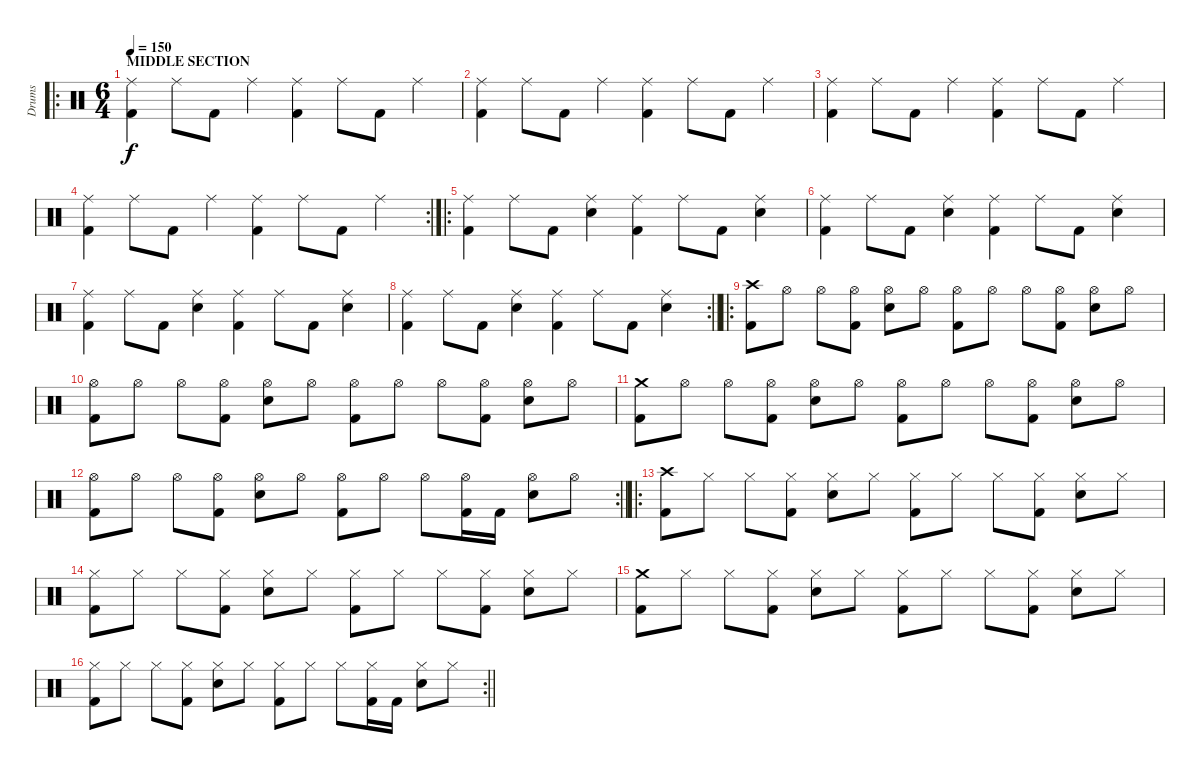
\track ("Drums" "Drums") {instrument percussion}
\staff {score}
\articulation defaults
\ro
\ts (6 4)
\section ("" "MIDDLE SECTION")
\tempo 150
\clef neutral
\ks c
("Kick (hit) 2" "Ride (middle)").4{dy f} "Ride (middle)".8 "Kick (hit) 2".8 "Ride (middle)".4 ("Kick (hit) 2" "Ride (middle)").4 "Ride (middle)".8 "Kick (hit) 2".8 "Ride (middle)".4 |
("Kick (hit) 2" "Ride (middle)").4 "Ride (middle)".8 "Kick (hit) 2".8 "Ride (middle)".4 ("Kick (hit) 2" "Ride (middle)").4 "Ride (middle)".8 "Kick (hit) 2".8 "Ride (middle)".4 |
("Kick (hit) 2" "Ride (middle)").4 "Ride (middle)".8 "Kick (hit) 2".8 "Ride (middle)".4 ("Kick (hit) 2" "Ride (middle)").4 "Ride (middle)".8 "Kick (hit) 2".8 "Ride (middle)".4 |
\rc 2
("Kick (hit) 2" "Ride (middle)").4 "Ride (middle)".8 "Kick (hit) 2".8 "Ride (middle)".4 ("Kick (hit) 2" "Ride (middle)").4 "Ride (middle)".8 "Kick (hit) 2".8 "Ride (middle)".4 |
\ro
("Kick (hit) 2" "Ride (middle)").4 "Ride (middle)".8 "Kick (hit) 2".8 ("Snare (hit) 2" "Ride (middle)").4 ("Kick (hit) 2" "Ride (middle)").4 "Ride (middle)".8 "Kick (hit) 2".8 ("Snare (hit) 2" "Ride (middle)").4 |
("Kick (hit) 2" "Ride (middle)").4 "Ride (middle)".8 "Kick (hit) 2".8 ("Snare (hit) 2" "Ride (middle)").4 ("Kick (hit) 2" "Ride (middle)").4 "Ride (middle)".8 "Kick (hit) 2".8 ("Snare (hit) 2" "Ride (middle)").4 |
("Kick (hit) 2" "Ride (middle)").4 "Ride (middle)".8 "Kick (hit) 2".8 ("Snare (hit) 2" "Ride (middle)").4 ("Kick (hit) 2" "Ride (middle)").4 "Ride (middle)".8 "Kick (hit) 2".8 ("Snare (hit) 2" "Ride (middle)").4 |
\rc 2
\barLineRight lightlight
("Kick (hit) 2" "Ride (middle)").4 "Ride (middle)".8 "Kick (hit) 2".8 ("Snare (hit) 2" "Ride (middle)").4 ("Kick (hit) 2" "Ride (middle)").4 "Ride (middle)".8 "Kick (hit) 2".8 ("Snare (hit) 2" "Ride (middle)").4 |
\ro
("Kick (hit) 2" "Crash high (hit)").8 "Hi-Hat (open)".8 "Hi-Hat (open)".8 ("Kick (hit) 2" "Hi-Hat (open)").8 ("Snare (hit) 2" "Hi-Hat (open)").8 "Hi-Hat (open)".8 ("Kick (hit) 2" "Hi-Hat (open)").8 "Hi-Hat (open)".8 "Hi-Hat (open)".8 ("Kick (hit) 2" "Hi-Hat (open)").8 ("Snare (hit) 2" "Hi-Hat (open)").8 "Hi-Hat (open)".8 |
("Kick (hit) 2" "Hi-Hat (open)").8 "Hi-Hat (open)".8 "Hi-Hat (open)".8 ("Kick (hit) 2" "Hi-Hat (open)").8 ("Snare (hit) 2" "Hi-Hat (open)").8 "Hi-Hat (open)".8 ("Kick (hit) 2" "Hi-Hat (open)").8 "Hi-Hat (open)".8 "Hi-Hat (open)".8 ("Kick (hit) 2" "Hi-Hat (open)").8 ("Snare (hit) 2" "Hi-Hat (open)").8 "Hi-Hat (open)".8 |
("Kick (hit) 2" "Crash medium (hit)").8 "Hi-Hat (open)".8 "Hi-Hat (open)".8 ("Kick (hit) 2" "Hi-Hat (open)").8 ("Snare (hit) 2" "Hi-Hat (open)").8 "Hi-Hat (open)".8 ("Kick (hit) 2" "Hi-Hat (open)").8 "Hi-Hat (open)".8 "Hi-Hat (open)".8 ("Kick (hit) 2" "Hi-Hat (open)").8 ("Snare (hit) 2" "Hi-Hat (open)").8 "Hi-Hat (open)".8 |
\rc 2
\barLineRight lightlight
("Kick (hit) 2" "Hi-Hat (open)").8 "Hi-Hat (open)".8 "Hi-Hat (open)".8 ("Kick (hit) 2" "Hi-Hat (open)").8 ("Snare (hit) 2" "Hi-Hat (open)").8 "Hi-Hat (open)".8 ("Kick (hit) 2" "Hi-Hat (open)").8 "Hi-Hat (open)".8 "Hi-Hat (open)".8 ("Kick (hit) 2" "Hi-Hat (open)").16 "Kick (hit) 2".16 ("Snare (hit) 2" "Hi-Hat (open)").8 "Hi-Hat (open)".8 |
\ro
("Kick (hit) 2" "Crash high (hit)").8 "Hi-Hat (closed)".8 "Hi-Hat (closed)".8 ("Kick (hit) 2" "Hi-Hat (closed)").8 ("Snare (hit) 2" "Hi-Hat (closed)").8 "Hi-Hat (closed)".8 ("Kick (hit) 2" "Hi-Hat (closed)").8 "Hi-Hat (closed)".8 "Hi-Hat (closed)".8 ("Kick (hit) 2" "Hi-Hat (closed)").8 ("Snare (hit) 2" "Hi-Hat (closed)").8 "Hi-Hat (closed)".8 |
("Kick (hit) 2" "Hi-Hat (closed)").8 "Hi-Hat (closed)".8 "Hi-Hat (closed)".8 ("Kick (hit) 2" "Hi-Hat (closed)").8 ("Snare (hit) 2" "Hi-Hat (closed)").8 "Hi-Hat (closed)".8 ("Kick (hit) 2" "Hi-Hat (closed)").8 "Hi-Hat (closed)".8 "Hi-Hat (closed)".8 ("Kick (hit) 2" "Hi-Hat (closed)").8 ("Snare (hit) 2" "Hi-Hat (closed)").8 "Hi-Hat (closed)".8 |
("Kick (hit) 2" "Crash medium (hit)").8 "Hi-Hat (closed)".8 "Hi-Hat (closed)".8 ("Kick (hit) 2" "Hi-Hat (closed)").8 ("Snare (hit) 2" "Hi-Hat (closed)").8 "Hi-Hat (closed)".8 ("Kick (hit) 2" "Hi-Hat (closed)").8 "Hi-Hat (closed)".8 "Hi-Hat (closed)".8 ("Kick (hit) 2" "Hi-Hat (closed)").8 ("Snare (hit) 2" "Hi-Hat (closed)").8 "Hi-Hat (closed)".8 |
\rc 2
\barLineRight lightlight
("Kick (hit) 2" "Hi-Hat (closed)").8 "Hi-Hat (closed)".8 "Hi-Hat (closed)".8 ("Kick (hit) 2" "Hi-Hat (closed)").8 ("Snare (hit) 2" "Hi-Hat (closed)").8 "Hi-Hat (closed)".8 ("Kick (hit) 2" "Hi-Hat (closed)").8 "Hi-Hat (closed)".8 "Hi-Hat (closed)".8 ("Kick (hit) 2" "Hi-Hat (closed)").16 "Kick (hit) 2".16 ("Snare (hit) 2" "Hi-Hat (closed)").8 "Hi-Hat (closed)".8
